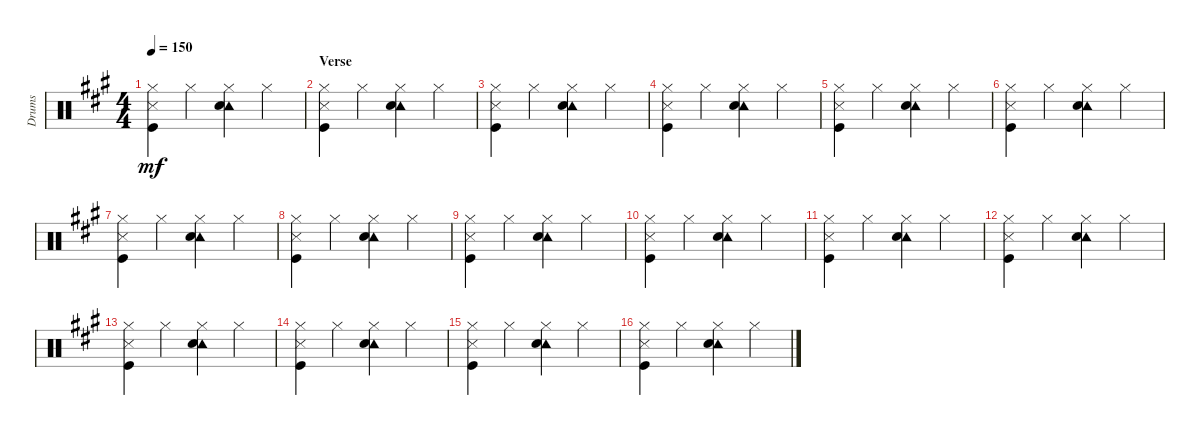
\track ("Drums" "Drums") {instrument percussion}
\staff {score}
\articulation defaults
\ts (4 4)
\tempo 150
\clef neutral
\ks a
("Hi-Hat (closed)" "Metronome (hit)" "Kick (hit)").4{dy mf} "Hi-Hat (closed)".4 ("Tambourine (hit)" "Hi-Hat (closed)" "Electric Snare (hit)").4 "Hi-Hat (closed)".4 |
\section ("" "Verse")
("Hi-Hat (closed)" "Metronome (hit)" "Kick (hit)").4 "Hi-Hat (closed)".4 ("Tambourine (hit)" "Hi-Hat (closed)" "Electric Snare (hit)").4 "Hi-Hat (closed)".4 |
("Hi-Hat (closed)" "Metronome (hit)" "Kick (hit)").4 "Hi-Hat (closed)".4 ("Tambourine (hit)" "Hi-Hat (closed)" "Electric Snare (hit)").4 "Hi-Hat (closed)".4 |
("Hi-Hat (closed)" "Metronome (hit)" "Kick (hit)").4 "Hi-Hat (closed)".4 ("Tambourine (hit)" "Hi-Hat (closed)" "Electric Snare (hit)").4 "Hi-Hat (closed)".4 |
("Hi-Hat (closed)" "Metronome (hit)" "Kick (hit)").4 "Hi-Hat (closed)".4 ("Tambourine (hit)" "Hi-Hat (closed)" "Electric Snare (hit)").4 "Hi-Hat (closed)".4 |
("Hi-Hat (closed)" "Metronome (hit)" "Kick (hit)").4 "Hi-Hat (closed)".4 ("Tambourine (hit)" "Hi-Hat (closed)" "Electric Snare (hit)").4 "Hi-Hat (closed)".4 |
("Hi-Hat (closed)" "Metronome (hit)" "Kick (hit)").4 "Hi-Hat (closed)".4 ("Tambourine (hit)" "Hi-Hat (closed)" "Electric Snare (hit)").4 "Hi-Hat (closed)".4 |
("Hi-Hat (closed)" "Metronome (hit)" "Kick (hit)").4 "Hi-Hat (closed)".4 ("Tambourine (hit)" "Hi-Hat (closed)" "Electric Snare (hit)").4 "Hi-Hat (closed)".4 |
("Hi-Hat (closed)" "Metronome (hit)" "Kick (hit)").4 "Hi-Hat (closed)".4 ("Tambourine (hit)" "Hi-Hat (closed)" "Electric Snare (hit)").4 "Hi-Hat (closed)".4 |
("Hi-Hat (closed)" "Metronome (hit)" "Kick (hit)").4 "Hi-Hat (closed)".4 ("Tambourine (hit)" "Hi-Hat (closed)" "Electric Snare (hit)").4 "Hi-Hat (closed)".4 |
("Hi-Hat (closed)" "Metronome (hit)" "Kick (hit)").4 "Hi-Hat (closed)".4 ("Tambourine (hit)" "Hi-Hat (closed)" "Electric Snare (hit)").4 "Hi-Hat (closed)".4 |
("Hi-Hat (closed)" "Metronome (hit)" "Kick (hit)").4 "Hi-Hat (closed)".4 ("Tambourine (hit)" "Hi-Hat (closed)" "Electric Snare (hit)").4 "Hi-Hat (closed)".4 |
("Hi-Hat (closed)" "Metronome (hit)" "Kick (hit)").4 "Hi-Hat (closed)".4 ("Tambourine (hit)" "Hi-Hat (closed)" "Electric Snare (hit)").4 "Hi-Hat (closed)".4 |
("Hi-Hat (closed)" "Metronome (hit)" "Kick (hit)").4 "Hi-Hat (closed)".4 ("Tambourine (hit)" "Hi-Hat (closed)" "Electric Snare (hit)").4 "Hi-Hat (closed)".4 |
("Hi-Hat (closed)" "Metronome (hit)" "Kick (hit)").4 "Hi-Hat (closed)".4 ("Tambourine (hit)" "Hi-Hat (closed)" "Electric Snare (hit)").4 "Hi-Hat (closed)".4 |
("Hi-Hat (closed)" "Metronome (hit)" "Kick (hit)").4 "Hi-Hat (closed)".4 ("Tambourine (hit)" "Hi-Hat (closed)" "Electric Snare (hit)").4 "Hi-Hat (closed)".4
